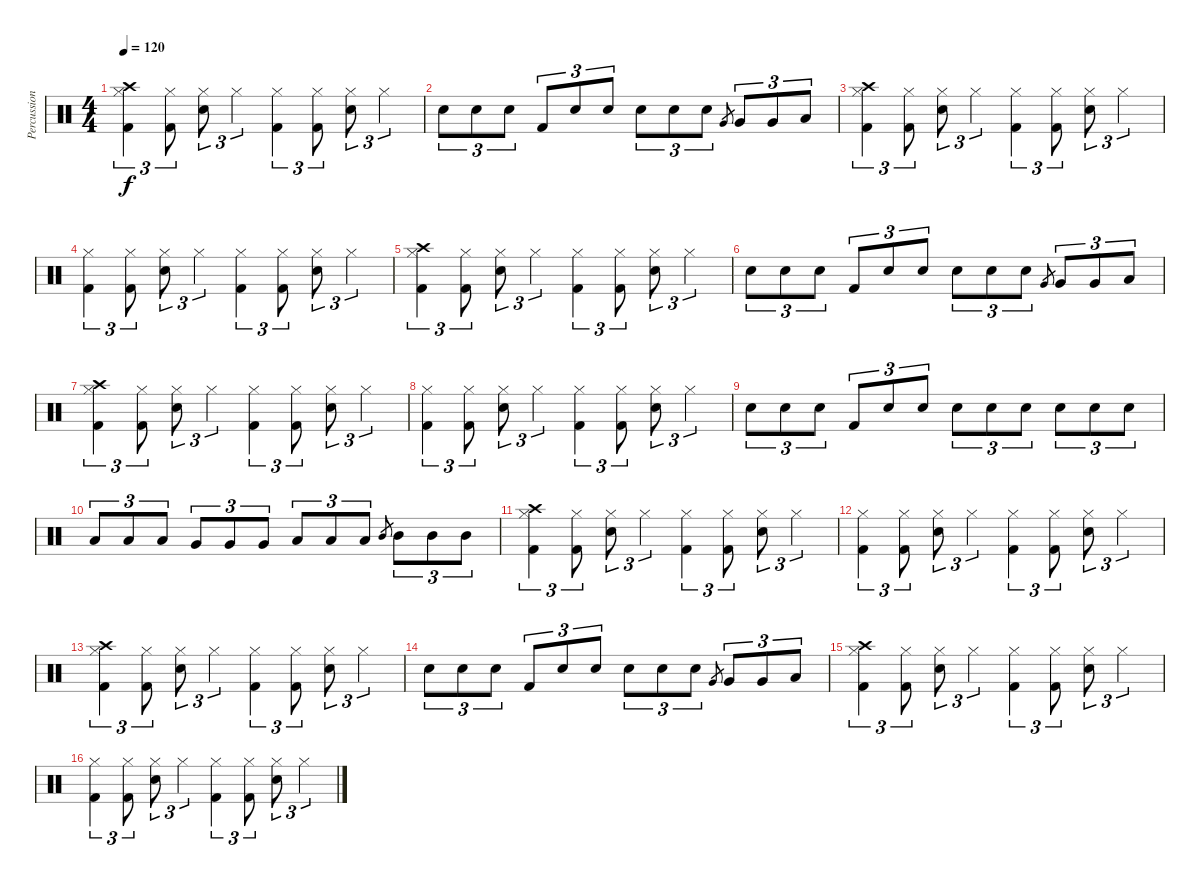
\track ("Percussion" "Percussion") {instrument percussion}
\staff {score}
\articulation defaults
\ts (4 4)
\tempo 120
\clef neutral
\ks c
("Hi-Hat (closed)" "Crash high (hit)" "Kick (hit) 2").4{tu (3 2) dy f} ("Hi-Hat (closed)" "Kick (hit) 2").8{tu (3 2)} ("Hi-Hat (closed)" "Electric Snare (hit)").8{tu (3 2)} "Hi-Hat (closed)".4{tu (3 2)} ("Hi-Hat (closed)" "Kick (hit) 2").4{tu (3 2)} ("Hi-Hat (closed)" "Kick (hit) 2").8{tu (3 2)} ("Hi-Hat (closed)" "Electric Snare (hit)").8{tu (3 2)} "Hi-Hat (closed)".4{tu (3 2)} |
"Electric Snare (hit)".8{tu (3 2)} "Electric Snare (hit)".8{tu (3 2)} "Electric Snare (hit)".8{tu (3 2)} "Kick (hit) 2".8{tu (3 2)} "Electric Snare (hit)".8{tu (3 2)} "Electric Snare (hit)".8{tu (3 2)} "Electric Snare (hit)".8{tu (3 2)} "Electric Snare (hit)".8{tu (3 2)} "Electric Snare (hit)".8{tu (3 2)} "Very Low Tom (hit)".8{gr} "Very Low Tom (hit)".8{tu (3 2)} "Very Low Tom (hit)".8{tu (3 2)} "Low Tom (hit)".8{tu (3 2)} |
("Hi-Hat (closed)" "Crash high (hit)" "Kick (hit) 2").4{tu (3 2)} ("Hi-Hat (closed)" "Kick (hit) 2").8{tu (3 2)} ("Hi-Hat (closed)" "Electric Snare (hit)").8{tu (3 2)} "Hi-Hat (closed)".4{tu (3 2)} ("Hi-Hat (closed)" "Kick (hit) 2").4{tu (3 2)} ("Hi-Hat (closed)" "Kick (hit) 2").8{tu (3 2)} ("Hi-Hat (closed)" "Electric Snare (hit)").8{tu (3 2)} "Hi-Hat (closed)".4{tu (3 2)} |
("Hi-Hat (closed)" "Kick (hit) 2").4{tu (3 2)} ("Hi-Hat (closed)" "Kick (hit) 2").8{tu (3 2)} ("Hi-Hat (closed)" "Electric Snare (hit)").8{tu (3 2)} "Hi-Hat (closed)".4{tu (3 2)} ("Hi-Hat (closed)" "Kick (hit) 2").4{tu (3 2)} ("Hi-Hat (closed)" "Kick (hit) 2").8{tu (3 2)} ("Hi-Hat (closed)" "Electric Snare (hit)").8{tu (3 2)} "Hi-Hat (closed)".4{tu (3 2)} |
("Hi-Hat (closed)" "Crash high (hit)" "Kick (hit) 2").4{tu (3 2)} ("Hi-Hat (closed)" "Kick (hit) 2").8{tu (3 2)} ("Hi-Hat (closed)" "Electric Snare (hit)").8{tu (3 2)} "Hi-Hat (closed)".4{tu (3 2)} ("Hi-Hat (closed)" "Kick (hit) 2").4{tu (3 2)} ("Hi-Hat (closed)" "Kick (hit) 2").8{tu (3 2)} ("Hi-Hat (closed)" "Electric Snare (hit)").8{tu (3 2)} "Hi-Hat (closed)".4{tu (3 2)} |
"Electric Snare (hit)".8{tu (3 2)} "Electric Snare (hit)".8{tu (3 2)} "Electric Snare (hit)".8{tu (3 2)} "Kick (hit) 2".8{tu (3 2)} "Electric Snare (hit)".8{tu (3 2)} "Electric Snare (hit)".8{tu (3 2)} "Electric Snare (hit)".8{tu (3 2)} "Electric Snare (hit)".8{tu (3 2)} "Electric Snare (hit)".8{tu (3 2)} "Very Low Tom (hit)".8{gr} "Very Low Tom (hit)".8{tu (3 2)} "Very Low Tom (hit)".8{tu (3 2)} "Low Tom (hit)".8{tu (3 2)} |
("Hi-Hat (closed)" "Crash high (hit)" "Kick (hit) 2").4{tu (3 2)} ("Hi-Hat (closed)" "Kick (hit) 2").8{tu (3 2)} ("Hi-Hat (closed)" "Electric Snare (hit)").8{tu (3 2)} "Hi-Hat (closed)".4{tu (3 2)} ("Hi-Hat (closed)" "Kick (hit) 2").4{tu (3 2)} ("Hi-Hat (closed)" "Kick (hit) 2").8{tu (3 2)} ("Hi-Hat (closed)" "Electric Snare (hit)").8{tu (3 2)} "Hi-Hat (closed)".4{tu (3 2)} |
("Hi-Hat (closed)" "Kick (hit) 2").4{tu (3 2)} ("Hi-Hat (closed)" "Kick (hit) 2").8{tu (3 2)} ("Hi-Hat (closed)" "Electric Snare (hit)").8{tu (3 2)} "Hi-Hat (closed)".4{tu (3 2)} ("Hi-Hat (closed)" "Kick (hit) 2").4{tu (3 2)} ("Hi-Hat (closed)" "Kick (hit) 2").8{tu (3 2)} ("Hi-Hat (closed)" "Electric Snare (hit)").8{tu (3 2)} "Hi-Hat (closed)".4{tu (3 2)} |
"Electric Snare (hit)".8{tu (3 2)} "Electric Snare (hit)".8{tu (3 2)} "Electric Snare (hit)".8{tu (3 2)} "Kick (hit) 2".8{tu (3 2)} "Electric Snare (hit)".8{tu (3 2)} "Electric Snare (hit)".8{tu (3 2)} "Electric Snare (hit)".8{tu (3 2)} "Electric Snare (hit)".8{tu (3 2)} "Electric Snare (hit)".8{tu (3 2)} "Electric Snare (hit)".8{tu (3 2)} "Electric Snare (hit)".8{tu (3 2)} "Electric Snare (hit)".8{tu (3 2)} |
"Low Floor Tom (hit)".8{tu (3 2)} "Low Floor Tom (hit)".8{tu (3 2)} "Low Floor Tom (hit)".8{tu (3 2)} "Very Low Tom (hit)".8{tu (3 2)} "Very Low Tom (hit)".8{tu (3 2)} "Very Low Tom (hit)".8{tu (3 2)} "Low Tom (hit)".8{tu (3 2)} "Low Tom (hit)".8{tu (3 2)} "Low Tom (hit)".8{tu (3 2)} "Mid Tom (hit)".8{gr} "Mid Tom (hit)".8{tu (3 2)} "Mid Tom (hit)".8{tu (3 2)} "Mid Tom (hit)".8{tu (3 2)} |
("Hi-Hat (closed)" "Crash high (hit)" "Kick (hit) 2").4{tu (3 2) volume 15} ("Hi-Hat (closed)" "Kick (hit) 2").8{tu (3 2)} ("Hi-Hat (closed)" "Electric Snare (hit)").8{tu (3 2)} "Hi-Hat (closed)".4{tu (3 2)} ("Hi-Hat (closed)" "Kick (hit) 2").4{tu (3 2)} ("Hi-Hat (closed)" "Kick (hit) 2").8{tu (3 2)} ("Hi-Hat (closed)" "Electric Snare (hit)").8{tu (3 2)} "Hi-Hat (closed)".4{tu (3 2)} |
("Hi-Hat (closed)" "Kick (hit) 2").4{tu (3 2) volume 13} ("Hi-Hat (closed)" "Kick (hit) 2").8{tu (3 2)} ("Hi-Hat (closed)" "Electric Snare (hit)").8{tu (3 2)} "Hi-Hat (closed)".4{tu (3 2)} ("Hi-Hat (closed)" "Kick (hit) 2").4{tu (3 2)} ("Hi-Hat (closed)" "Kick (hit) 2").8{tu (3 2)} ("Hi-Hat (closed)" "Electric Snare (hit)").8{tu (3 2)} "Hi-Hat (closed)".4{tu (3 2)} |
("Hi-Hat (closed)" "Crash high (hit)" "Kick (hit) 2").4{tu (3 2) volume 11} ("Hi-Hat (closed)" "Kick (hit) 2").8{tu (3 2)} ("Hi-Hat (closed)" "Electric Snare (hit)").8{tu (3 2)} "Hi-Hat (closed)".4{tu (3 2)} ("Hi-Hat (closed)" "Kick (hit) 2").4{tu (3 2)} ("Hi-Hat (closed)" "Kick (hit) 2").8{tu (3 2)} ("Hi-Hat (closed)" "Electric Snare (hit)").8{tu (3 2)} "Hi-Hat (closed)".4{tu (3 2)} |
"Electric Snare (hit)".8{tu (3 2) volume 9} "Electric Snare (hit)".8{tu (3 2)} "Electric Snare (hit)".8{tu (3 2)} "Kick (hit) 2".8{tu (3 2)} "Electric Snare (hit)".8{tu (3 2)} "Electric Snare (hit)".8{tu (3 2)} "Electric Snare (hit)".8{tu (3 2)} "Electric Snare (hit)".8{tu (3 2)} "Electric Snare (hit)".8{tu (3 2)} "Very Low Tom (hit)".8{gr} "Very Low Tom (hit)".8{tu (3 2)} "Very Low Tom (hit)".8{tu (3 2)} "Low Tom (hit)".8{tu (3 2)} |
("Hi-Hat (closed)" "Crash high (hit)" "Kick (hit) 2").4{tu (3 2) volume 6} ("Hi-Hat (closed)" "Kick (hit) 2").8{tu (3 2)} ("Hi-Hat (closed)" "Electric Snare (hit)").8{tu (3 2)} "Hi-Hat (closed)".4{tu (3 2)} ("Hi-Hat (closed)" "Kick (hit) 2").4{tu (3 2)} ("Hi-Hat (closed)" "Kick (hit) 2").8{tu (3 2)} ("Hi-Hat (closed)" "Electric Snare (hit)").8{tu (3 2)} "Hi-Hat (closed)".4{tu (3 2)} |
("Hi-Hat (closed)" "Kick (hit) 2").4{tu (3 2) volume 4} ("Hi-Hat (closed)" "Kick (hit) 2").8{tu (3 2)} ("Hi-Hat (closed)" "Electric Snare (hit)").8{tu (3 2)} "Hi-Hat (closed)".4{tu (3 2)} ("Hi-Hat (closed)" "Kick (hit) 2").4{tu (3 2)} ("Hi-Hat (closed)" "Kick (hit) 2").8{tu (3 2)} ("Hi-Hat (closed)" "Electric Snare (hit)").8{tu (3 2)} "Hi-Hat (closed)".4{tu (3 2)}
